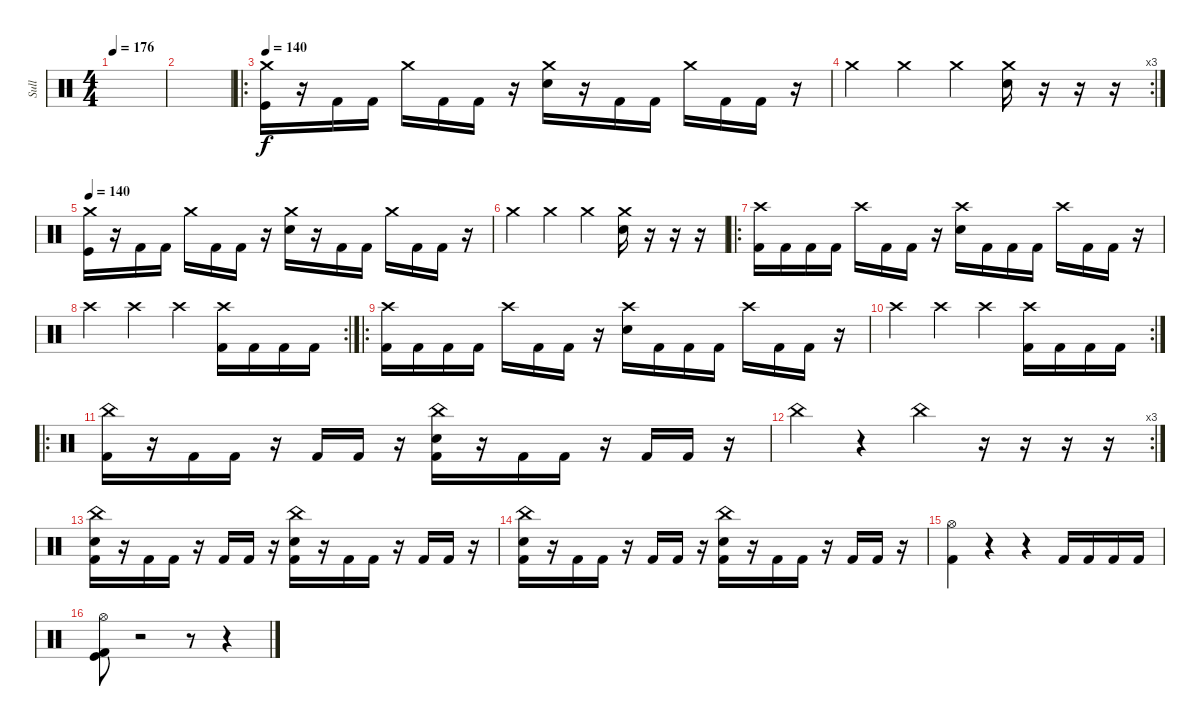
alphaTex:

\track ("Sull" "Sull") {instrument percussion}
\staff {score}
\articulation defaults
\ts (4 4)
\tempo 176
\clef neutral
\ks c
|
|
\ro
\tempo 140
("Crash medium (hit)" "Kick (hit)").16 r.16 "Kick (hit) 2".16 "Kick (hit) 2".16 "Crash medium (hit)".16 "Kick (hit) 2".16 "Kick (hit) 2".16 r.16 ("Crash medium (hit)" "Electric Snare (hit)").16 r.16 "Kick (hit) 2".16 "Kick (hit) 2".16 "Crash medium (hit)".16 "Kick (hit) 2".16 "Kick (hit) 2".16 r.16 |
\rc 3 "Crash medium (hit)".4 "Crash medium (hit)".4 "Crash medium (hit)".4
("Crash medium (hit)" "Electric Snare (hit)").16 r.16 r.16 r.16 |
\tempo 140
("Crash medium (hit)" "Kick (hit)").16 r.16 "Kick (hit) 2".16 "Kick (hit) 2".16 "Crash medium (hit)".16 "Kick (hit) 2".16 "Kick (hit) 2".16 r.16 ("Crash medium (hit)" "Electric Snare (hit)").16 r.16 "Kick (hit) 2".16 "Kick (hit) 2".16 "Crash medium (hit)".16 "Kick (hit) 2".16 "Kick (hit) 2".16 r.16 |
"Crash medium (hit)".4 "Crash medium (hit)".4 "Crash medium (hit)".4 ("Crash medium (hit)" "Electric Snare (hit)").16 r.16 r.16 r.16 |
\ro
("Crash high (hit)" "Kick (hit) 2").16 "Kick (hit) 2".16 "Kick (hit) 2".16 "Kick (hit) 2".16 "Crash high (hit)".16 "Kick (hit) 2".16 "Kick (hit) 2".16 r.16 ("Crash high (hit)" "Electric Snare (hit)").16 "Kick (hit) 2".16 "Kick (hit) 2".16 "Kick (hit) 2".16 "Crash high (hit)".16 "Kick (hit) 2".16 "Kick (hit) 2".16 r.16 |
\rc 2 "Crash high (hit)".4 "Crash high (hit)".4 "Crash high (hit)".4
("Crash high (hit)" "Kick (hit) 2").16 "Kick (hit) 2".16 "Kick (hit) 2".16 "Kick (hit) 2".16 |
\ro
("Crash high (hit)" "Kick (hit) 2").16 "Kick (hit) 2".16 "Kick (hit) 2".16 "Kick (hit) 2".16 "Crash high (hit)".16 "Kick (hit) 2".16 "Kick (hit) 2".16 r.16 ("Crash high (hit)" "Electric Snare (hit)").16 "Kick (hit) 2".16 "Kick (hit) 2".16 "Kick (hit) 2".16 "Crash high (hit)".16 "Kick (hit) 2".16 "Kick (hit) 2".16 r.16 |
\rc 2 "Crash high (hit)".4 "Crash high (hit)".4 "Crash high (hit)".4
("Crash high (hit)" "Kick (hit) 2").16 "Kick (hit) 2".16 "Kick (hit) 2".16 "Kick (hit) 2".16 |
\ro
("China (hit)" "Kick (hit) 2").16 r.16 "Kick (hit) 2".16 "Kick (hit) 2".16 r.16 "Kick (hit) 2".16 "Kick (hit) 2".16 r.16 ("China (hit)" "Electric Snare (hit)" "Kick (hit) 2").16 r.16 "Kick (hit) 2".16 "Kick (hit) 2".16 r.16 "Kick (hit) 2".16 "Kick (hit) 2".16 r.16 |
\rc 3 "China (hit)".4
r.4 "China (hit)".4 r.16 r.16 r.16 r.16 |
("China (hit)" "Electric Snare (hit)" "Kick (hit) 2").16 r.16 "Kick (hit) 2".16 "Kick (hit) 2".16 r.16 "Kick (hit) 2".16 "Kick (hit) 2".16 r.16 ("China (hit)" "Electric Snare (hit)" "Kick (hit) 2").16 r.16 "Kick (hit) 2".16 "Kick (hit) 2".16 r.16 "Kick (hit) 2".16 "Kick (hit) 2".16 r.16 |
("China (hit)" "Electric Snare (hit)" "Kick (hit) 2").16 r.16 "Kick (hit) 2".16 "Kick (hit) 2".16 r.16 "Kick (hit) 2".16 "Kick (hit) 2".16 r.16 ("China (hit)" "Electric Snare (hit)" "Kick (hit) 2").16 r.16 "Kick (hit) 2".16 "Kick (hit) 2".16 r.16 "Kick (hit) 2".16 "Kick (hit) 2".16 r.16 |
("Hi-Hat (open)" "Kick (hit) 2").4 r.4 r.4 "Kick (hit) 2".16 "Kick (hit) 2".16 "Kick (hit) 2".16 "Kick (hit) 2".16 |
("Hi-Hat (open)" "Kick (hit)" "Kick (hit) 2").8 r.2 r.8 r.4
